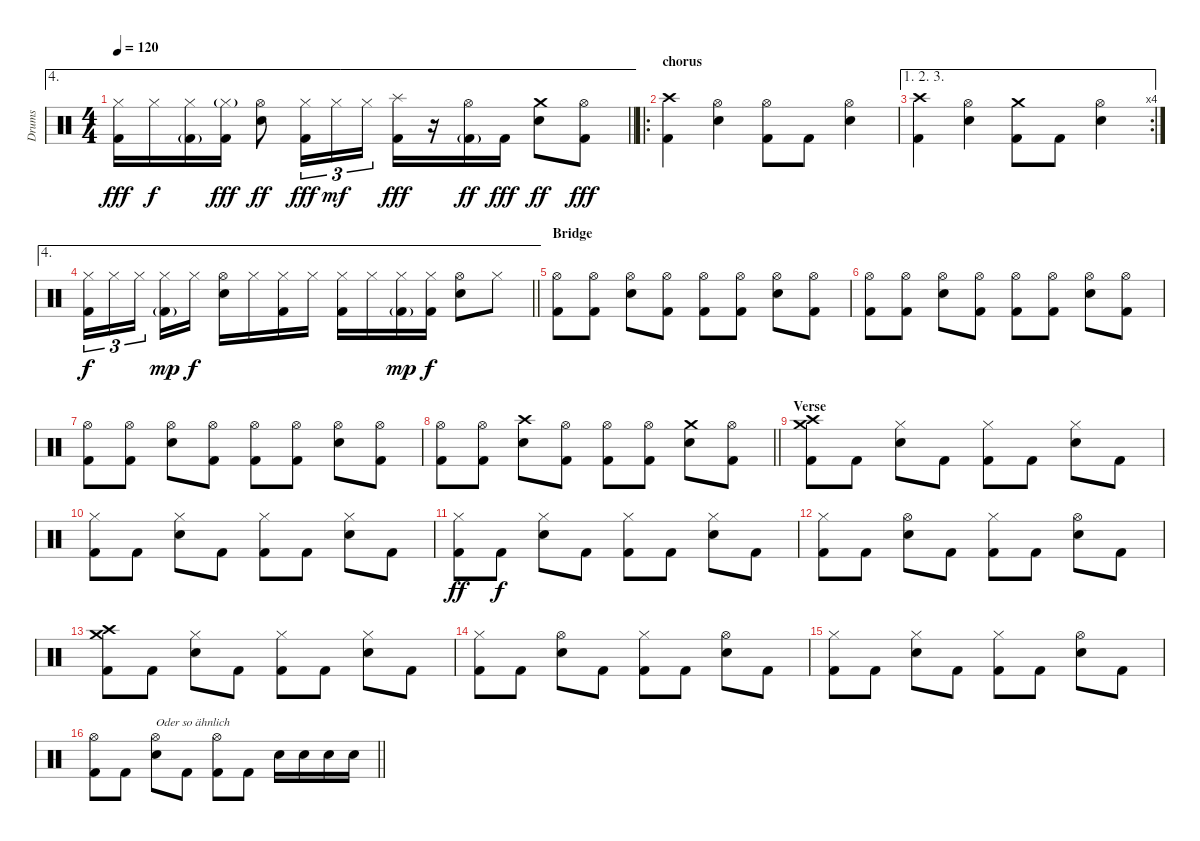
\track ("Drums" "Drums") {instrument percussion}
\staff {score}
\articulation defaults
\ae 4
\ts (4 4)
\tempo 120
\clef neutral
\barLineRight lightlight
\ks c
("Hi-Hat (closed)" "Kick (hit) 2").16{dy fff} "Hi-Hat (closed)".16{dy f} ("Hi-Hat (closed)" "Kick (hit) 2"{g}).16 ("Hi-Hat (closed)"{g} "Kick (hit) 2").16{dy fff} ("Hi-Hat (open)" "Electric Snare (hit)").8{dy ff} ("Hi-Hat (closed)" "Kick (hit) 2").16{tu (3 2) dy fff} "Hi-Hat (closed)".16{tu (3 2) dy mf} "Hi-Hat (closed)".16{tu (3 2)} ("Splash (hit)" "Kick (hit) 2").16{dy fff} r.16 ("Hi-Hat (open)" "Kick (hit) 2"{g}).16{dy ff} "Kick (hit) 2".16{dy fff} ("Crash medium (hit)" "Electric Snare (hit)").8{dy ff} ("Hi-Hat (open)" "Kick (hit) 2").8{dy fff} |
\ro
\section ("" "chorus")
("Crash high (hit)" "Kick (hit) 2").4 ("Hi-Hat (open)" "Electric Snare (hit)").4 ("Hi-Hat (open)" "Kick (hit) 2").8 "Kick (hit) 2".8 ("Hi-Hat (open)" "Electric Snare (hit)").4 |
\ae (1 2 3)
\rc 4
("Crash high (hit)" "Kick (hit) 2").4 ("Hi-Hat (open)" "Electric Snare (hit)").4 ("Crash medium (hit)" "Kick (hit) 2").8 "Kick (hit) 2".8 ("Hi-Hat (open)" "Electric Snare (hit)").4 |
\ae 4
\barLineRight lightlight
("Hi-Hat (closed)" "Kick (hit) 2").16{tu (3 2) dy f} "Hi-Hat (closed)".16{tu (3 2)} "Hi-Hat (closed)".16{tu (3 2) beam splitsecondary} ("Hi-Hat (closed)" "Kick (hit) 2"{g}).16{dy mp} "Hi-Hat (closed)".16{dy f} ("Hi-Hat (open)" "Electric Snare (hit)").16 "Hi-Hat (closed)".16 ("Hi-Hat (closed)" "Kick (hit) 2").16 "Hi-Hat (closed)".16 ("Hi-Hat (closed)" "Kick (hit) 2").16 "Hi-Hat (closed)".16 ("Hi-Hat (closed)" "Kick (hit) 2"{g}).16{dy mp} ("Hi-Hat (closed)" "Kick (hit) 2").16{dy f} ("Hi-Hat (open)" "Electric Snare (hit)").8 "Hi-Hat (closed)".8 |
\section ("" "Bridge")
("Hi-Hat (open)" "Kick (hit) 2").8 ("Hi-Hat (open)" "Kick (hit) 2").8 ("Hi-Hat (open)" "Electric Snare (hit)").8 ("Hi-Hat (open)" "Kick (hit) 2").8 ("Hi-Hat (open)" "Kick (hit) 2").8 ("Hi-Hat (open)" "Kick (hit) 2").8 ("Hi-Hat (open)" "Electric Snare (hit)").8 ("Hi-Hat (open)" "Kick (hit) 2").8 |
("Hi-Hat (open)" "Kick (hit) 2").8 ("Hi-Hat (open)" "Kick (hit) 2").8 ("Hi-Hat (open)" "Electric Snare (hit)").8 ("Hi-Hat (open)" "Kick (hit) 2").8 ("Hi-Hat (open)" "Kick (hit) 2").8 ("Hi-Hat (open)" "Kick (hit) 2").8 ("Hi-Hat (open)" "Electric Snare (hit)").8 ("Hi-Hat (open)" "Kick (hit) 2").8 |
("Hi-Hat (open)" "Kick (hit) 2").8 ("Hi-Hat (open)" "Kick (hit) 2").8 ("Hi-Hat (open)" "Electric Snare (hit)").8 ("Hi-Hat (open)" "Kick (hit) 2").8 ("Hi-Hat (open)" "Kick (hit) 2").8 ("Hi-Hat (open)" "Kick (hit) 2").8 ("Hi-Hat (open)" "Electric Snare (hit)").8 ("Hi-Hat (open)" "Kick (hit) 2").8 |
\barLineRight lightlight
("Hi-Hat (open)" "Kick (hit) 2").8 ("Hi-Hat (open)" "Kick (hit) 2").8 ("Crash high (hit)" "Electric Snare (hit)").8 ("Hi-Hat (open)" "Kick (hit) 2").8 ("Hi-Hat (open)" "Kick (hit) 2").8 ("Hi-Hat (open)" "Kick (hit) 2").8 ("Crash medium (hit)" "Electric Snare (hit)").8 ("Hi-Hat (open)" "Kick (hit) 2").8 |
\section ("" "Verse")
("Crash medium (hit)" "Crash high (hit)" "Kick (hit) 2").8 "Kick (hit) 2".8 ("Hi-Hat (closed)" "Electric Snare (hit)").8 "Kick (hit) 2".8 ("Hi-Hat (closed)" "Kick (hit) 2").8 "Kick (hit) 2".8 ("Hi-Hat (closed)" "Electric Snare (hit)").8 "Kick (hit) 2".8 |
("Hi-Hat (closed)" "Kick (hit) 2").8 "Kick (hit) 2".8 ("Hi-Hat (closed)" "Electric Snare (hit)").8 "Kick (hit) 2".8 ("Hi-Hat (closed)" "Kick (hit) 2").8 "Kick (hit) 2".8 ("Hi-Hat (closed)" "Electric Snare (hit)").8 "Kick (hit) 2".8 |
("Hi-Hat (closed)" "Kick (hit) 2").8{dy ff} "Kick (hit) 2".8{dy f} ("Hi-Hat (closed)" "Electric Snare (hit)").8 "Kick (hit) 2".8 ("Hi-Hat (closed)" "Kick (hit) 2").8 "Kick (hit) 2".8 ("Hi-Hat (closed)" "Electric Snare (hit)").8 "Kick (hit) 2".8 |
("Hi-Hat (closed)" "Kick (hit) 2").8 "Kick (hit) 2".8 ("Hi-Hat (open)" "Electric Snare (hit)").8 "Kick (hit) 2".8 ("Hi-Hat (closed)" "Kick (hit) 2").8 "Kick (hit) 2".8 ("Hi-Hat (open)" "Electric Snare (hit)").8 "Kick (hit) 2".8 |
("Crash medium (hit)" "Crash high (hit)" "Kick (hit) 2").8 "Kick (hit) 2".8 ("Hi-Hat (closed)" "Electric Snare (hit)").8 "Kick (hit) 2".8 ("Hi-Hat (closed)" "Kick (hit) 2").8 "Kick (hit) 2".8 ("Hi-Hat (closed)" "Electric Snare (hit)").8 "Kick (hit) 2".8 |
("Hi-Hat (closed)" "Kick (hit) 2").8 "Kick (hit) 2".8 ("Hi-Hat (open)" "Electric Snare (hit)").8 "Kick (hit) 2".8 ("Hi-Hat (closed)" "Kick (hit) 2").8 "Kick (hit) 2".8 ("Hi-Hat (open)" "Electric Snare (hit)").8 "Kick (hit) 2".8 |
("Hi-Hat (closed)" "Kick (hit) 2").8 "Kick (hit) 2".8 ("Hi-Hat (closed)" "Electric Snare (hit)").8 "Kick (hit) 2".8 ("Hi-Hat (closed)" "Kick (hit) 2").8 "Kick (hit) 2".8 ("Hi-Hat (open)" "Electric Snare (hit)").8 "Kick (hit) 2".8 |
\barLineRight lightlight
("Hi-Hat (open)" "Kick (hit) 2").8 "Kick (hit) 2".8 ("Hi-Hat (open)" "Electric Snare (hit)").8{txt "Oder so ähnlich"} "Kick (hit) 2".8 ("Hi-Hat (open)" "Kick (hit) 2").8 "Kick (hit) 2".8 "Electric Snare (hit)".16 "Electric Snare (hit)".16 "Electric Snare (hit)".16 "Electric Snare (hit)".16
